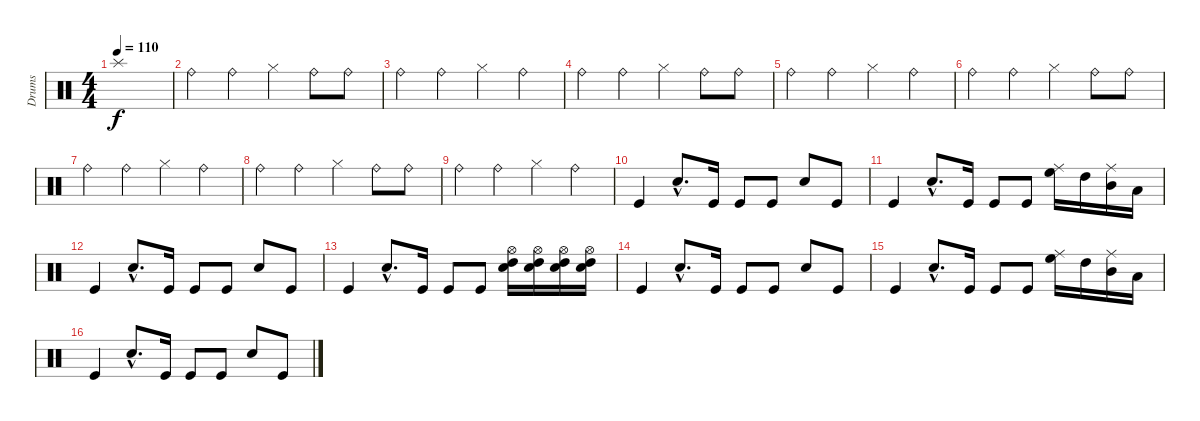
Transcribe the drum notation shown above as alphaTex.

\track ("Drums" "Drums") {instrument percussion}
\staff {score}
\articulation defaults
\ts (4 4)
\tempo 110
\clef neutral
\ks c "Splash (hit)".1{dy f}
|
"Ride (bell)".4 "Ride (bell)".4 "Hi-Hat (closed)".4 "Ride (bell)".8 "Ride (bell)".8 |
"Ride (bell)".4 "Ride (bell)".4 "Hi-Hat (closed)".4 "Ride (bell)".4 |
"Ride (bell)".4 "Ride (bell)".4 "Hi-Hat (closed)".4 "Ride (bell)".8 "Ride (bell)".8 |
"Ride (bell)".4 "Ride (bell)".4 "Hi-Hat (closed)".4 "Ride (bell)".4 |
"Ride (bell)".4 "Ride (bell)".4 "Hi-Hat (closed)".4 "Ride (bell)".8 "Ride (bell)".8 |
"Ride (bell)".4 "Ride (bell)".4 "Hi-Hat (closed)".4 "Ride (bell)".4 |
"Ride (bell)".4 "Ride (bell)".4 "Hi-Hat (closed)".4 "Ride (bell)".8 "Ride (bell)".8 |
"Ride (bell)".4 "Ride (bell)".4 "Hi-Hat (closed)".4 "Ride (bell)".4 |
"Kick (hit)".4 "Electric Snare (hit)"{hac}.8{d} "Kick (hit)".16 "Kick (hit)".8 "Kick (hit)".8 "Electric Snare (hit)".8 "Kick (hit)".8 |
"Kick (hit)".4 "Electric Snare (hit)"{hac}.8{d} "Kick (hit)".16 "Kick (hit)".8 "Kick (hit)".8 ("Ride (middle)" "High Floor Tom (hit)").16 "High Tom (hit)".16 ("Ride (middle)" "Mid Tom (hit)").16 "Low Tom (hit)".16 |
"Kick (hit)".4 "Electric Snare (hit)"{hac}.8{d} "Kick (hit)".16 "Kick (hit)".8 "Kick (hit)".8 "Electric Snare (hit)".8 "Kick (hit)".8 |
"Kick (hit)".4 "Electric Snare (hit)"{hac}.8{d} "Kick (hit)".16 "Kick (hit)".8 "Kick (hit)".8 ("Hi-Hat (open)" "High Tom (hit)" "Snare (hit) 2").16 ("Hi-Hat (open)" "High Tom (hit)" "Snare (hit) 2").16 ("Hi-Hat (open)" "High Tom (hit)" "Snare (hit) 2").16 ("Hi-Hat (open)" "High Tom (hit)" "Snare (hit) 2").16 |
"Kick (hit)".4 "Electric Snare (hit)"{hac}.8{d} "Kick (hit)".16 "Kick (hit)".8 "Kick (hit)".8 "Electric Snare (hit)".8 "Kick (hit)".8 |
"Kick (hit)".4 "Electric Snare (hit)"{hac}.8{d} "Kick (hit)".16 "Kick (hit)".8 "Kick (hit)".8 ("Ride (middle)" "High Floor Tom (hit)").16 "High Tom (hit)".16 ("Ride (middle)" "Mid Tom (hit)").16 "Low Tom (hit)".16 |
"Kick (hit)".4 "Electric Snare (hit)"{hac}.8{d} "Kick (hit)".16 "Kick (hit)".8 "Kick (hit)".8 "Electric Snare (hit)".8 "Kick (hit)".8
